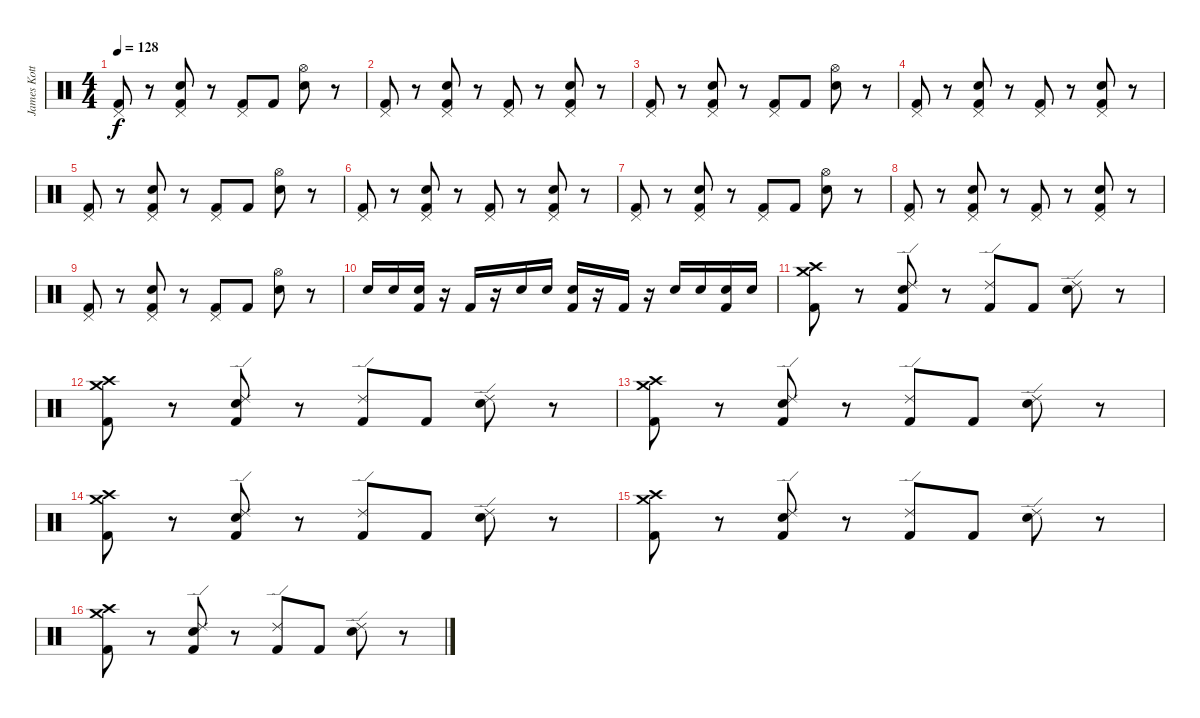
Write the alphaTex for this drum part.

\track ("James Kottak" "James Kott") {instrument percussion}
\staff {score}
\articulation defaults
\ts (4 4)
\tempo 128
\clef neutral
\ks c
("Pedal Hi-Hat (hit)" "Kick (hit) 2").8{dy f} r.8 ("Pedal Hi-Hat (hit)" "Electric Snare (hit)" "Kick (hit) 2").8 r.8 ("Pedal Hi-Hat (hit)" "Kick (hit) 2").8 "Kick (hit) 2".8 ("Hi-Hat (open)" "Electric Snare (hit)").8 r.8 |
("Pedal Hi-Hat (hit)" "Kick (hit) 2").8 r.8 ("Pedal Hi-Hat (hit)" "Electric Snare (hit)" "Kick (hit) 2").8 r.8 ("Pedal Hi-Hat (hit)" "Kick (hit) 2").8 r.8 ("Pedal Hi-Hat (hit)" "Electric Snare (hit)" "Kick (hit) 2").8 r.8 |
("Pedal Hi-Hat (hit)" "Kick (hit) 2").8 r.8 ("Pedal Hi-Hat (hit)" "Electric Snare (hit)" "Kick (hit) 2").8 r.8 ("Pedal Hi-Hat (hit)" "Kick (hit) 2").8 "Kick (hit) 2".8 ("Hi-Hat (open)" "Electric Snare (hit)").8 r.8 |
("Pedal Hi-Hat (hit)" "Kick (hit) 2").8 r.8 ("Pedal Hi-Hat (hit)" "Electric Snare (hit)" "Kick (hit) 2").8 r.8 ("Pedal Hi-Hat (hit)" "Kick (hit) 2").8 r.8 ("Pedal Hi-Hat (hit)" "Electric Snare (hit)" "Kick (hit) 2").8 r.8 |
("Pedal Hi-Hat (hit)" "Kick (hit) 2").8 r.8 ("Pedal Hi-Hat (hit)" "Electric Snare (hit)" "Kick (hit) 2").8 r.8 ("Pedal Hi-Hat (hit)" "Kick (hit) 2").8 "Kick (hit) 2".8 ("Hi-Hat (open)" "Electric Snare (hit)").8 r.8 |
("Pedal Hi-Hat (hit)" "Kick (hit) 2").8 r.8 ("Pedal Hi-Hat (hit)" "Electric Snare (hit)" "Kick (hit) 2").8 r.8 ("Pedal Hi-Hat (hit)" "Kick (hit) 2").8 r.8 ("Pedal Hi-Hat (hit)" "Electric Snare (hit)" "Kick (hit) 2").8 r.8 |
("Pedal Hi-Hat (hit)" "Kick (hit) 2").8 r.8 ("Pedal Hi-Hat (hit)" "Electric Snare (hit)" "Kick (hit) 2").8 r.8 ("Pedal Hi-Hat (hit)" "Kick (hit) 2").8 "Kick (hit) 2".8 ("Hi-Hat (open)" "Electric Snare (hit)").8 r.8 |
("Pedal Hi-Hat (hit)" "Kick (hit) 2").8 r.8 ("Pedal Hi-Hat (hit)" "Electric Snare (hit)" "Kick (hit) 2").8 r.8 ("Pedal Hi-Hat (hit)" "Kick (hit) 2").8 r.8 ("Pedal Hi-Hat (hit)" "Electric Snare (hit)" "Kick (hit) 2").8 r.8 |
("Pedal Hi-Hat (hit)" "Kick (hit) 2").8 r.8 ("Pedal Hi-Hat (hit)" "Electric Snare (hit)" "Kick (hit) 2").8 r.8 ("Pedal Hi-Hat (hit)" "Kick (hit) 2").8 "Kick (hit) 2".8 ("Hi-Hat (open)" "Electric Snare (hit)").8 r.8 |
"Electric Snare (hit)".16 "Electric Snare (hit)".16 ("Electric Snare (hit)" "Kick (hit) 2").16 r.16 "Kick (hit) 2".16 r.16 "Electric Snare (hit)".16 "Electric Snare (hit)".16 ("Electric Snare (hit)" "Kick (hit) 2").16 r.16 "Kick (hit) 2".16 r.16 "Electric Snare (hit)".16 "Electric Snare (hit)".16 ("Electric Snare (hit)" "Kick (hit) 2").16 "Electric Snare (hit)".16 |
("Crash high (hit)" "Crash medium (hit)" "Kick (hit) 2").8 r.8 ("Ride (edge) 2" "Electric Snare (hit)" "Kick (hit) 2").8 r.8 ("Ride (edge) 2" "Kick (hit) 2").8 "Kick (hit) 2".8 ("Ride (edge) 2" "Electric Snare (hit)").8 r.8 |
("Crash high (hit)" "Crash medium (hit)" "Kick (hit) 2").8 r.8 ("Ride (edge) 2" "Electric Snare (hit)" "Kick (hit) 2").8 r.8 ("Ride (edge) 2" "Kick (hit) 2").8 "Kick (hit) 2".8 ("Ride (edge) 2" "Electric Snare (hit)").8 r.8 |
("Crash high (hit)" "Crash medium (hit)" "Kick (hit) 2").8 r.8 ("Ride (edge) 2" "Electric Snare (hit)" "Kick (hit) 2").8 r.8 ("Ride (edge) 2" "Kick (hit) 2").8 "Kick (hit) 2".8 ("Ride (edge) 2" "Electric Snare (hit)").8 r.8 |
("Crash high (hit)" "Crash medium (hit)" "Kick (hit) 2").8 r.8 ("Ride (edge) 2" "Electric Snare (hit)" "Kick (hit) 2").8 r.8 ("Ride (edge) 2" "Kick (hit) 2").8 "Kick (hit) 2".8 ("Ride (edge) 2" "Electric Snare (hit)").8 r.8 |
("Crash high (hit)" "Crash medium (hit)" "Kick (hit) 2").8 r.8 ("Ride (edge) 2" "Electric Snare (hit)" "Kick (hit) 2").8 r.8 ("Ride (edge) 2" "Kick (hit) 2").8 "Kick (hit) 2".8 ("Ride (edge) 2" "Electric Snare (hit)").8 r.8 |
("Crash high (hit)" "Crash medium (hit)" "Kick (hit) 2").8 r.8 ("Ride (edge) 2" "Electric Snare (hit)" "Kick (hit) 2").8 r.8 ("Ride (edge) 2" "Kick (hit) 2").8 "Kick (hit) 2".8 ("Ride (edge) 2" "Electric Snare (hit)").8 r.8
